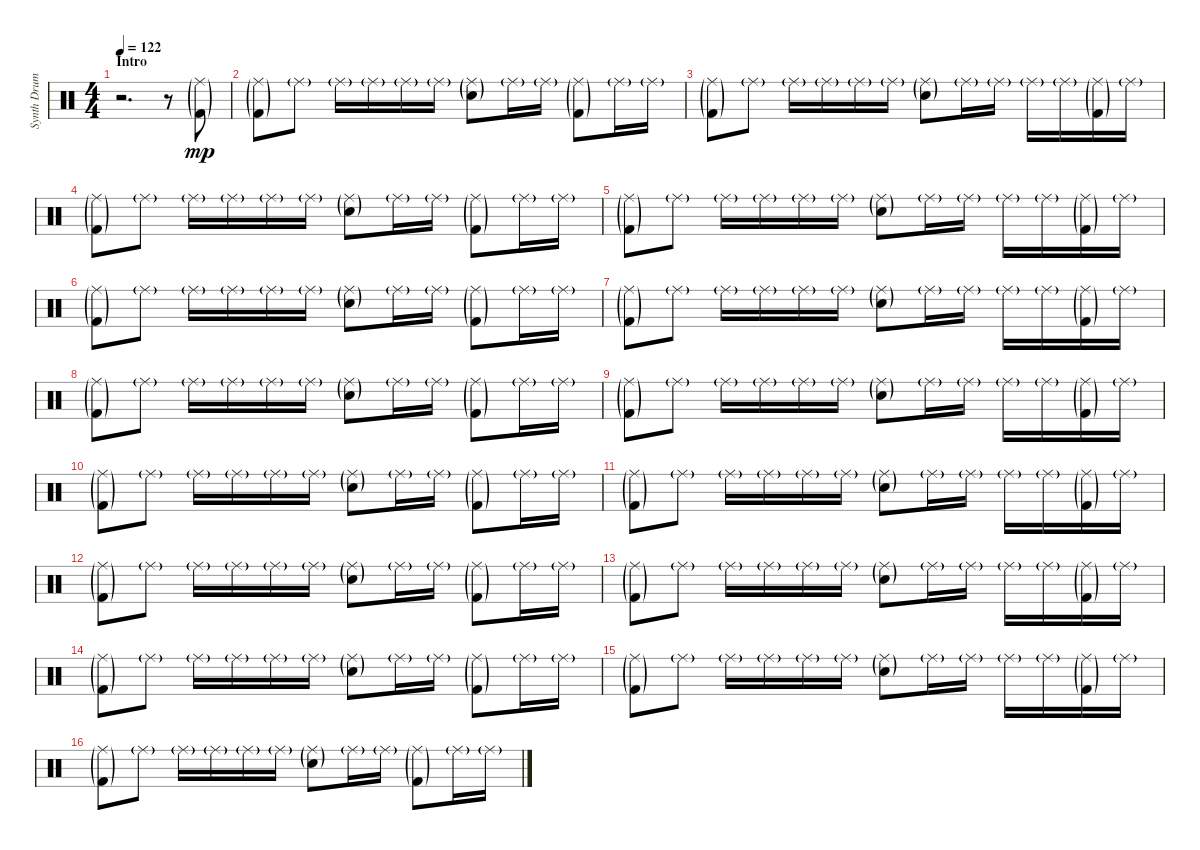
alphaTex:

\track ("Synth Drums" "Synth Drum") {instrument percussion}
\staff {score}
\articulation defaults
\ts (4 4)
\section ("" "Intro")
\tempo 122
\clef neutral
\ks c
r.2{d dy mp} r.8 ("Ride (middle)"{g} "Kick (hit) 2"{g}).8 |
("Ride (middle)"{g} "Kick (hit) 2"{g}).8 "Ride (middle)"{g}.8 "Ride (middle)"{g}.16 "Ride (middle)"{g}.16 "Ride (middle)"{g}.16 "Ride (middle)"{g}.16 ("Snare (hit) 2"{g} "Ride (middle)"{g}).8 "Ride (middle)"{g}.16 "Ride (middle)"{g}.16 ("Ride (middle)"{g} "Kick (hit) 2"{g}).8 "Ride (middle)"{g}.16 "Ride (middle)"{g}.16 |
("Ride (middle)"{g} "Kick (hit) 2"{g}).8 "Ride (middle)"{g}.8 "Ride (middle)"{g}.16 "Ride (middle)"{g}.16 "Ride (middle)"{g}.16 "Ride (middle)"{g}.16 ("Snare (hit) 2"{g} "Ride (middle)"{g}).8 "Ride (middle)"{g}.16 "Ride (middle)"{g}.16 "Ride (middle)"{g}.16 "Ride (middle)"{g}.16 ("Ride (middle)"{g} "Kick (hit) 2"{g}).16 "Ride (middle)"{g}.16 |
("Ride (middle)"{g} "Kick (hit) 2"{g}).8 "Ride (middle)"{g}.8 "Ride (middle)"{g}.16 "Ride (middle)"{g}.16 "Ride (middle)"{g}.16 "Ride (middle)"{g}.16 ("Snare (hit) 2"{g} "Ride (middle)"{g}).8 "Ride (middle)"{g}.16 "Ride (middle)"{g}.16 ("Ride (middle)"{g} "Kick (hit) 2"{g}).8 "Ride (middle)"{g}.16 "Ride (middle)"{g}.16 |
("Ride (middle)"{g} "Kick (hit) 2"{g}).8 "Ride (middle)"{g}.8 "Ride (middle)"{g}.16 "Ride (middle)"{g}.16 "Ride (middle)"{g}.16 "Ride (middle)"{g}.16 ("Snare (hit) 2"{g} "Ride (middle)"{g}).8 "Ride (middle)"{g}.16 "Ride (middle)"{g}.16 "Ride (middle)"{g}.16 "Ride (middle)"{g}.16 ("Ride (middle)"{g} "Kick (hit) 2"{g}).16 "Ride (middle)"{g}.16 |
("Ride (middle)"{g} "Kick (hit) 2"{g}).8 "Ride (middle)"{g}.8 "Ride (middle)"{g}.16 "Ride (middle)"{g}.16 "Ride (middle)"{g}.16 "Ride (middle)"{g}.16 ("Snare (hit) 2"{g} "Ride (middle)"{g}).8 "Ride (middle)"{g}.16 "Ride (middle)"{g}.16 ("Ride (middle)"{g} "Kick (hit) 2"{g}).8 "Ride (middle)"{g}.16 "Ride (middle)"{g}.16 |
("Ride (middle)"{g} "Kick (hit) 2"{g}).8 "Ride (middle)"{g}.8 "Ride (middle)"{g}.16 "Ride (middle)"{g}.16 "Ride (middle)"{g}.16 "Ride (middle)"{g}.16 ("Snare (hit) 2"{g} "Ride (middle)"{g}).8 "Ride (middle)"{g}.16 "Ride (middle)"{g}.16 "Ride (middle)"{g}.16 "Ride (middle)"{g}.16 ("Ride (middle)"{g} "Kick (hit) 2"{g}).16 "Ride (middle)"{g}.16 |
("Ride (middle)"{g} "Kick (hit) 2"{g}).8 "Ride (middle)"{g}.8 "Ride (middle)"{g}.16 "Ride (middle)"{g}.16 "Ride (middle)"{g}.16 "Ride (middle)"{g}.16 ("Snare (hit) 2"{g} "Ride (middle)"{g}).8 "Ride (middle)"{g}.16 "Ride (middle)"{g}.16 ("Ride (middle)"{g} "Kick (hit) 2"{g}).8 "Ride (middle)"{g}.16 "Ride (middle)"{g}.16 |
("Ride (middle)"{g} "Kick (hit) 2"{g}).8 "Ride (middle)"{g}.8 "Ride (middle)"{g}.16 "Ride (middle)"{g}.16 "Ride (middle)"{g}.16 "Ride (middle)"{g}.16 ("Snare (hit) 2"{g} "Ride (middle)"{g}).8 "Ride (middle)"{g}.16 "Ride (middle)"{g}.16 "Ride (middle)"{g}.16 "Ride (middle)"{g}.16 ("Ride (middle)"{g} "Kick (hit) 2"{g}).16 "Ride (middle)"{g}.16 |
("Ride (middle)"{g} "Kick (hit) 2"{g}).8 "Ride (middle)"{g}.8 "Ride (middle)"{g}.16 "Ride (middle)"{g}.16 "Ride (middle)"{g}.16 "Ride (middle)"{g}.16 ("Snare (hit) 2"{g} "Ride (middle)"{g}).8 "Ride (middle)"{g}.16 "Ride (middle)"{g}.16 ("Ride (middle)"{g} "Kick (hit) 2"{g}).8 "Ride (middle)"{g}.16 "Ride (middle)"{g}.16 |
("Ride (middle)"{g} "Kick (hit) 2"{g}).8 "Ride (middle)"{g}.8 "Ride (middle)"{g}.16 "Ride (middle)"{g}.16 "Ride (middle)"{g}.16 "Ride (middle)"{g}.16 ("Snare (hit) 2"{g} "Ride (middle)"{g}).8 "Ride (middle)"{g}.16 "Ride (middle)"{g}.16 "Ride (middle)"{g}.16 "Ride (middle)"{g}.16 ("Ride (middle)"{g} "Kick (hit) 2"{g}).16 "Ride (middle)"{g}.16 |
("Ride (middle)"{g} "Kick (hit) 2"{g}).8 "Ride (middle)"{g}.8 "Ride (middle)"{g}.16 "Ride (middle)"{g}.16 "Ride (middle)"{g}.16 "Ride (middle)"{g}.16 ("Snare (hit) 2"{g} "Ride (middle)"{g}).8 "Ride (middle)"{g}.16 "Ride (middle)"{g}.16 ("Ride (middle)"{g} "Kick (hit) 2"{g}).8 "Ride (middle)"{g}.16 "Ride (middle)"{g}.16 |
("Ride (middle)"{g} "Kick (hit) 2"{g}).8 "Ride (middle)"{g}.8 "Ride (middle)"{g}.16 "Ride (middle)"{g}.16 "Ride (middle)"{g}.16 "Ride (middle)"{g}.16 ("Snare (hit) 2"{g} "Ride (middle)"{g}).8 "Ride (middle)"{g}.16 "Ride (middle)"{g}.16 "Ride (middle)"{g}.16 "Ride (middle)"{g}.16 ("Ride (middle)"{g} "Kick (hit) 2"{g}).16 "Ride (middle)"{g}.16 |
("Ride (middle)"{g} "Kick (hit) 2"{g}).8 "Ride (middle)"{g}.8 "Ride (middle)"{g}.16 "Ride (middle)"{g}.16 "Ride (middle)"{g}.16 "Ride (middle)"{g}.16 ("Snare (hit) 2"{g} "Ride (middle)"{g}).8 "Ride (middle)"{g}.16 "Ride (middle)"{g}.16 ("Ride (middle)"{g} "Kick (hit) 2"{g}).8 "Ride (middle)"{g}.16 "Ride (middle)"{g}.16 |
("Ride (middle)"{g} "Kick (hit) 2"{g}).8 "Ride (middle)"{g}.8 "Ride (middle)"{g}.16 "Ride (middle)"{g}.16 "Ride (middle)"{g}.16 "Ride (middle)"{g}.16 ("Snare (hit) 2"{g} "Ride (middle)"{g}).8 "Ride (middle)"{g}.16 "Ride (middle)"{g}.16 "Ride (middle)"{g}.16 "Ride (middle)"{g}.16 ("Ride (middle)"{g} "Kick (hit) 2"{g}).16 "Ride (middle)"{g}.16 |
("Ride (middle)"{g} "Kick (hit) 2"{g}).8 "Ride (middle)"{g}.8 "Ride (middle)"{g}.16 "Ride (middle)"{g}.16 "Ride (middle)"{g}.16 "Ride (middle)"{g}.16 ("Snare (hit) 2"{g} "Ride (middle)"{g}).8 "Ride (middle)"{g}.16 "Ride (middle)"{g}.16 ("Ride (middle)"{g} "Kick (hit) 2"{g}).8 "Ride (middle)"{g}.16 "Ride (middle)"{g}.16
